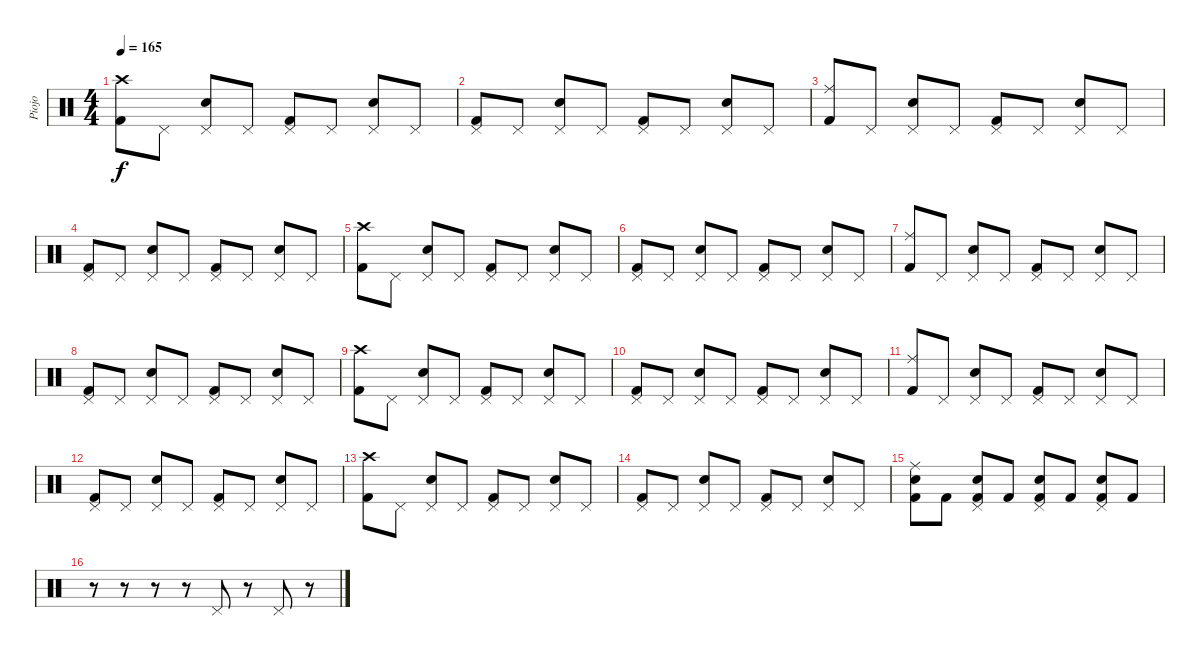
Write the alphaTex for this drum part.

\track ("Piojo" "Piojo") {instrument percussion}
\staff {score}
\articulation defaults
\ts (4 4)
\tempo 165
\clef neutral
\ks c
("Crash high (hit)" "Kick (hit) 2").8{dy f} "Pedal Hi-Hat (hit)".8 ("Pedal Hi-Hat (hit)" "Electric Snare (hit)").8 "Pedal Hi-Hat (hit)".8 ("Pedal Hi-Hat (hit)" "Kick (hit) 2").8 "Pedal Hi-Hat (hit)".8 ("Pedal Hi-Hat (hit)" "Electric Snare (hit)").8 "Pedal Hi-Hat (hit)".8 |
("Pedal Hi-Hat (hit)" "Kick (hit) 2").8 "Pedal Hi-Hat (hit)".8 ("Pedal Hi-Hat (hit)" "Electric Snare (hit)").8 "Pedal Hi-Hat (hit)".8 ("Pedal Hi-Hat (hit)" "Kick (hit) 2").8 "Pedal Hi-Hat (hit)".8 ("Pedal Hi-Hat (hit)" "Electric Snare (hit)").8 "Pedal Hi-Hat (hit)".8 |
("Ride (middle)" "Kick (hit) 2").8 "Pedal Hi-Hat (hit)".8 ("Pedal Hi-Hat (hit)" "Electric Snare (hit)").8 "Pedal Hi-Hat (hit)".8 ("Pedal Hi-Hat (hit)" "Kick (hit) 2").8 "Pedal Hi-Hat (hit)".8 ("Pedal Hi-Hat (hit)" "Electric Snare (hit)").8 "Pedal Hi-Hat (hit)".8 |
("Pedal Hi-Hat (hit)" "Kick (hit) 2").8 "Pedal Hi-Hat (hit)".8 ("Pedal Hi-Hat (hit)" "Electric Snare (hit)").8 "Pedal Hi-Hat (hit)".8 ("Pedal Hi-Hat (hit)" "Kick (hit) 2").8 "Pedal Hi-Hat (hit)".8 ("Pedal Hi-Hat (hit)" "Electric Snare (hit)").8 "Pedal Hi-Hat (hit)".8 |
("Crash high (hit)" "Kick (hit) 2").8 "Pedal Hi-Hat (hit)".8 ("Pedal Hi-Hat (hit)" "Electric Snare (hit)").8 "Pedal Hi-Hat (hit)".8 ("Pedal Hi-Hat (hit)" "Kick (hit) 2").8 "Pedal Hi-Hat (hit)".8 ("Pedal Hi-Hat (hit)" "Electric Snare (hit)").8 "Pedal Hi-Hat (hit)".8 |
("Pedal Hi-Hat (hit)" "Kick (hit) 2").8 "Pedal Hi-Hat (hit)".8 ("Pedal Hi-Hat (hit)" "Electric Snare (hit)").8 "Pedal Hi-Hat (hit)".8 ("Pedal Hi-Hat (hit)" "Kick (hit) 2").8 "Pedal Hi-Hat (hit)".8 ("Pedal Hi-Hat (hit)" "Electric Snare (hit)").8 "Pedal Hi-Hat (hit)".8 |
("Ride (middle)" "Kick (hit) 2").8 "Pedal Hi-Hat (hit)".8 ("Pedal Hi-Hat (hit)" "Electric Snare (hit)").8 "Pedal Hi-Hat (hit)".8 ("Pedal Hi-Hat (hit)" "Kick (hit) 2").8 "Pedal Hi-Hat (hit)".8 ("Pedal Hi-Hat (hit)" "Electric Snare (hit)").8 "Pedal Hi-Hat (hit)".8 |
("Pedal Hi-Hat (hit)" "Kick (hit) 2").8 "Pedal Hi-Hat (hit)".8 ("Pedal Hi-Hat (hit)" "Electric Snare (hit)").8 "Pedal Hi-Hat (hit)".8 ("Pedal Hi-Hat (hit)" "Kick (hit) 2").8 "Pedal Hi-Hat (hit)".8 ("Pedal Hi-Hat (hit)" "Electric Snare (hit)").8 "Pedal Hi-Hat (hit)".8 |
("Crash high (hit)" "Kick (hit) 2").8 "Pedal Hi-Hat (hit)".8 ("Pedal Hi-Hat (hit)" "Electric Snare (hit)").8 "Pedal Hi-Hat (hit)".8 ("Pedal Hi-Hat (hit)" "Kick (hit) 2").8 "Pedal Hi-Hat (hit)".8 ("Pedal Hi-Hat (hit)" "Electric Snare (hit)").8 "Pedal Hi-Hat (hit)".8 |
("Pedal Hi-Hat (hit)" "Kick (hit) 2").8 "Pedal Hi-Hat (hit)".8 ("Pedal Hi-Hat (hit)" "Electric Snare (hit)").8 "Pedal Hi-Hat (hit)".8 ("Pedal Hi-Hat (hit)" "Kick (hit) 2").8 "Pedal Hi-Hat (hit)".8 ("Pedal Hi-Hat (hit)" "Electric Snare (hit)").8 "Pedal Hi-Hat (hit)".8 |
("Ride (middle)" "Kick (hit) 2").8 "Pedal Hi-Hat (hit)".8 ("Pedal Hi-Hat (hit)" "Electric Snare (hit)").8 "Pedal Hi-Hat (hit)".8 ("Pedal Hi-Hat (hit)" "Kick (hit) 2").8 "Pedal Hi-Hat (hit)".8 ("Pedal Hi-Hat (hit)" "Electric Snare (hit)").8 "Pedal Hi-Hat (hit)".8 |
("Pedal Hi-Hat (hit)" "Kick (hit) 2").8 "Pedal Hi-Hat (hit)".8 ("Pedal Hi-Hat (hit)" "Electric Snare (hit)").8 "Pedal Hi-Hat (hit)".8 ("Pedal Hi-Hat (hit)" "Kick (hit) 2").8 "Pedal Hi-Hat (hit)".8 ("Pedal Hi-Hat (hit)" "Electric Snare (hit)").8 "Pedal Hi-Hat (hit)".8 |
("Crash high (hit)" "Kick (hit) 2").8 "Pedal Hi-Hat (hit)".8 ("Pedal Hi-Hat (hit)" "Electric Snare (hit)").8 "Pedal Hi-Hat (hit)".8 ("Pedal Hi-Hat (hit)" "Kick (hit) 2").8 "Pedal Hi-Hat (hit)".8 ("Pedal Hi-Hat (hit)" "Electric Snare (hit)").8 "Pedal Hi-Hat (hit)".8 |
("Pedal Hi-Hat (hit)" "Kick (hit) 2").8 "Pedal Hi-Hat (hit)".8 ("Pedal Hi-Hat (hit)" "Electric Snare (hit)").8 "Pedal Hi-Hat (hit)".8 ("Pedal Hi-Hat (hit)" "Kick (hit) 2").8 "Pedal Hi-Hat (hit)".8 ("Pedal Hi-Hat (hit)" "Electric Snare (hit)").8 "Pedal Hi-Hat (hit)".8 |
("Ride (middle)" "Electric Snare (hit)" "Kick (hit) 2").8 "Kick (hit) 2".8 ("Pedal Hi-Hat (hit)" "Electric Snare (hit)" "Kick (hit) 2").8 "Kick (hit) 2".8 ("Pedal Hi-Hat (hit)" "Electric Snare (hit)" "Kick (hit) 2").8 "Kick (hit) 2".8 ("Pedal Hi-Hat (hit)" "Electric Snare (hit)" "Kick (hit) 2").8 "Kick (hit) 2".8 |
r.8 r.8 r.8 r.8 "Pedal Hi-Hat (hit)".8 r.8 "Pedal Hi-Hat (hit)".8 r.8
